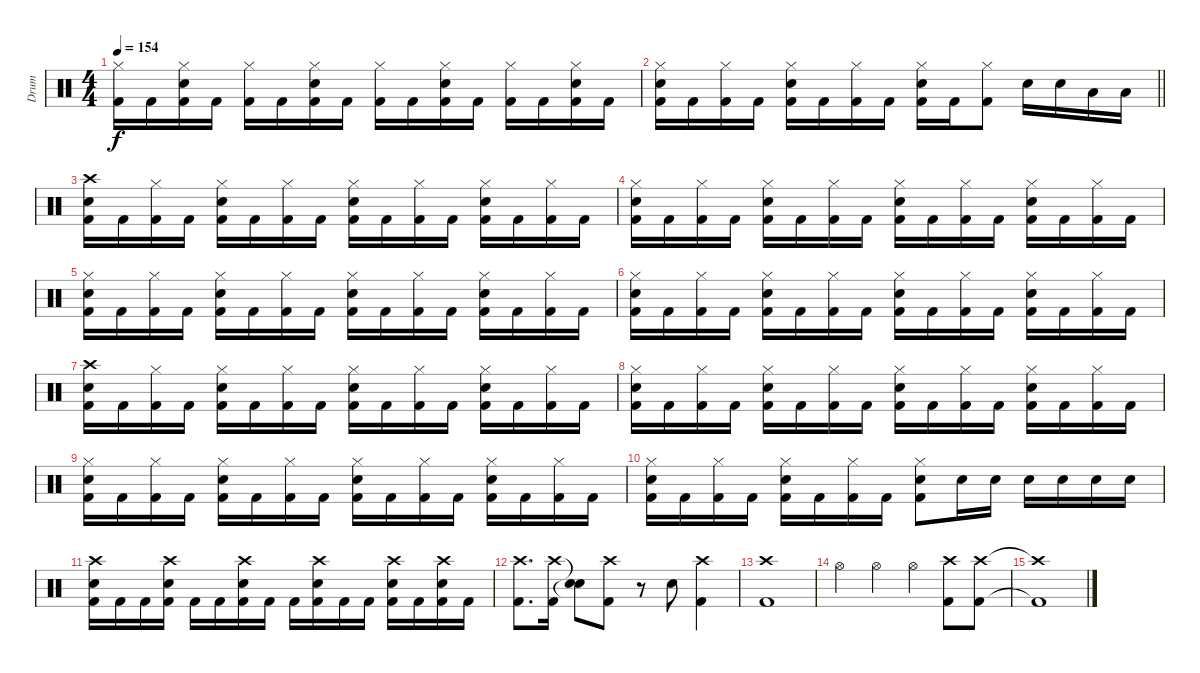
\track ("Drum" "Drum") {instrument percussion}
\staff {score}
\articulation defaults
\ts (4 4)
\tempo 154
\clef neutral
\ks c
("Hi-Hat (closed)" "Kick (hit) 2").16{dy f} "Kick (hit) 2".16 ("Hi-Hat (closed)" "Snare (hit) 2" "Kick (hit) 2").16 "Kick (hit) 2".16 ("Hi-Hat (closed)" "Kick (hit) 2").16 "Kick (hit) 2".16 ("Hi-Hat (closed)" "Snare (hit) 2" "Kick (hit) 2").16 "Kick (hit) 2".16 ("Hi-Hat (closed)" "Kick (hit) 2").16 "Kick (hit) 2".16 ("Hi-Hat (closed)" "Snare (hit) 2" "Kick (hit) 2").16 "Kick (hit) 2".16 ("Hi-Hat (closed)" "Kick (hit) 2").16 "Kick (hit) 2".16 ("Hi-Hat (closed)" "Snare (hit) 2" "Kick (hit) 2").16 "Kick (hit) 2".16 |
\barLineRight lightlight
("Hi-Hat (closed)" "Snare (hit) 2" "Kick (hit) 2").16 "Kick (hit) 2".16 ("Hi-Hat (closed)" "Kick (hit) 2").16 "Kick (hit) 2".16 ("Hi-Hat (closed)" "Snare (hit) 2" "Kick (hit) 2").16 "Kick (hit) 2".16 ("Hi-Hat (closed)" "Kick (hit) 2").16 "Kick (hit) 2".16 ("Hi-Hat (closed)" "Snare (hit) 2" "Kick (hit) 2").16 "Kick (hit) 2".16 ("Hi-Hat (closed)" "Kick (hit) 2").8 "Snare (hit) 2".16 "Snare (hit) 2".16 "Low Tom (hit)".16 "Low Tom (hit)".16 |
("Crash high (hit)" "Snare (hit) 2" "Kick (hit) 2").16 "Kick (hit) 2".16 ("Hi-Hat (closed)" "Kick (hit) 2").16 "Kick (hit) 2".16 ("Hi-Hat (closed)" "Snare (hit) 2" "Kick (hit) 2").16 "Kick (hit) 2".16 ("Hi-Hat (closed)" "Kick (hit) 2").16 "Kick (hit) 2".16 ("Hi-Hat (closed)" "Snare (hit) 2" "Kick (hit) 2").16 "Kick (hit) 2".16 ("Hi-Hat (closed)" "Kick (hit) 2").16 "Kick (hit) 2".16 ("Hi-Hat (closed)" "Snare (hit) 2" "Kick (hit) 2").16 "Kick (hit) 2".16 ("Hi-Hat (closed)" "Kick (hit) 2").16 "Kick (hit) 2".16 |
("Hi-Hat (closed)" "Snare (hit) 2" "Kick (hit) 2").16 "Kick (hit) 2".16 ("Hi-Hat (closed)" "Kick (hit) 2").16 "Kick (hit) 2".16 ("Hi-Hat (closed)" "Snare (hit) 2" "Kick (hit) 2").16 "Kick (hit) 2".16 ("Hi-Hat (closed)" "Kick (hit) 2").16 "Kick (hit) 2".16 ("Hi-Hat (closed)" "Snare (hit) 2" "Kick (hit) 2").16 "Kick (hit) 2".16 ("Hi-Hat (closed)" "Kick (hit) 2").16 "Kick (hit) 2".16 ("Hi-Hat (closed)" "Snare (hit) 2" "Kick (hit) 2").16 "Kick (hit) 2".16 ("Hi-Hat (closed)" "Kick (hit) 2").16 "Kick (hit) 2".16 |
("Hi-Hat (closed)" "Snare (hit) 2" "Kick (hit) 2").16 "Kick (hit) 2".16 ("Hi-Hat (closed)" "Kick (hit) 2").16 "Kick (hit) 2".16 ("Hi-Hat (closed)" "Snare (hit) 2" "Kick (hit) 2").16 "Kick (hit) 2".16 ("Hi-Hat (closed)" "Kick (hit) 2").16 "Kick (hit) 2".16 ("Hi-Hat (closed)" "Snare (hit) 2" "Kick (hit) 2").16 "Kick (hit) 2".16 ("Hi-Hat (closed)" "Kick (hit) 2").16 "Kick (hit) 2".16 ("Hi-Hat (closed)" "Snare (hit) 2" "Kick (hit) 2").16 "Kick (hit) 2".16 ("Hi-Hat (closed)" "Kick (hit) 2").16 "Kick (hit) 2".16 |
("Hi-Hat (closed)" "Snare (hit) 2" "Kick (hit) 2").16 "Kick (hit) 2".16 ("Hi-Hat (closed)" "Kick (hit) 2").16 "Kick (hit) 2".16 ("Hi-Hat (closed)" "Snare (hit) 2" "Kick (hit) 2").16 "Kick (hit) 2".16 ("Hi-Hat (closed)" "Kick (hit) 2").16 "Kick (hit) 2".16 ("Hi-Hat (closed)" "Snare (hit) 2" "Kick (hit) 2").16 "Kick (hit) 2".16 ("Hi-Hat (closed)" "Kick (hit) 2").16 "Kick (hit) 2".16 ("Hi-Hat (closed)" "Snare (hit) 2" "Kick (hit) 2").16 "Kick (hit) 2".16 ("Hi-Hat (closed)" "Kick (hit) 2").16 "Kick (hit) 2".16 |
("Crash high (hit)" "Snare (hit) 2" "Kick (hit) 2").16 "Kick (hit) 2".16 ("Hi-Hat (closed)" "Kick (hit) 2").16 "Kick (hit) 2".16 ("Hi-Hat (closed)" "Snare (hit) 2" "Kick (hit) 2").16 "Kick (hit) 2".16 ("Hi-Hat (closed)" "Kick (hit) 2").16 "Kick (hit) 2".16 ("Hi-Hat (closed)" "Snare (hit) 2" "Kick (hit) 2").16 "Kick (hit) 2".16 ("Hi-Hat (closed)" "Kick (hit) 2").16 "Kick (hit) 2".16 ("Hi-Hat (closed)" "Snare (hit) 2" "Kick (hit) 2").16 "Kick (hit) 2".16 ("Hi-Hat (closed)" "Kick (hit) 2").16 "Kick (hit) 2".16 |
("Hi-Hat (closed)" "Snare (hit) 2" "Kick (hit) 2").16 "Kick (hit) 2".16 ("Hi-Hat (closed)" "Kick (hit) 2").16 "Kick (hit) 2".16 ("Hi-Hat (closed)" "Snare (hit) 2" "Kick (hit) 2").16 "Kick (hit) 2".16 ("Hi-Hat (closed)" "Kick (hit) 2").16 "Kick (hit) 2".16 ("Hi-Hat (closed)" "Snare (hit) 2" "Kick (hit) 2").16 "Kick (hit) 2".16 ("Hi-Hat (closed)" "Kick (hit) 2").16 "Kick (hit) 2".16 ("Hi-Hat (closed)" "Snare (hit) 2" "Kick (hit) 2").16 "Kick (hit) 2".16 ("Hi-Hat (closed)" "Kick (hit) 2").16 "Kick (hit) 2".16 |
("Hi-Hat (closed)" "Snare (hit) 2" "Kick (hit) 2").16 "Kick (hit) 2".16 ("Hi-Hat (closed)" "Kick (hit) 2").16 "Kick (hit) 2".16 ("Hi-Hat (closed)" "Snare (hit) 2" "Kick (hit) 2").16 "Kick (hit) 2".16 ("Hi-Hat (closed)" "Kick (hit) 2").16 "Kick (hit) 2".16 ("Hi-Hat (closed)" "Snare (hit) 2" "Kick (hit) 2").16 "Kick (hit) 2".16 ("Hi-Hat (closed)" "Kick (hit) 2").16 "Kick (hit) 2".16 ("Hi-Hat (closed)" "Snare (hit) 2" "Kick (hit) 2").16 "Kick (hit) 2".16 ("Hi-Hat (closed)" "Kick (hit) 2").16 "Kick (hit) 2".16 |
("Hi-Hat (closed)" "Snare (hit) 2" "Kick (hit) 2").16 "Kick (hit) 2".16 ("Hi-Hat (closed)" "Kick (hit) 2").16 "Kick (hit) 2".16 ("Hi-Hat (closed)" "Snare (hit) 2" "Kick (hit) 2").16 "Kick (hit) 2".16 ("Hi-Hat (closed)" "Kick (hit) 2").16 "Kick (hit) 2".16 ("Hi-Hat (closed)" "Snare (hit) 2" "Kick (hit) 2").8 "Snare (hit) 2".16 "Snare (hit) 2".16 "Snare (hit) 2".16 "Snare (hit) 2".16 "Snare (hit) 2".16 "Snare (hit) 2".16 |
("Crash high (hit)" "Snare (hit) 2" "Kick (hit) 2").16 "Kick (hit) 2".16 "Kick (hit) 2".16 ("Crash high (hit)" "Snare (hit) 2" "Kick (hit) 2").16 "Kick (hit) 2".16 "Kick (hit) 2".16 ("Crash high (hit)" "Snare (hit) 2" "Kick (hit) 2").16 "Kick (hit) 2".16 "Kick (hit) 2".16 ("Crash high (hit)" "Snare (hit) 2" "Kick (hit) 2").16 "Kick (hit) 2".16 "Kick (hit) 2".16 ("Crash high (hit)" "Snare (hit) 2" "Kick (hit) 2").16 "Kick (hit) 2".16 ("Crash high (hit)" "Snare (hit) 2" "Kick (hit) 2").16 "Kick (hit) 2".16 |
("Crash high (hit)" "Kick (hit) 2").8{d} ("Crash high (hit)" "Kick (hit) 2").16 ("Snare (hit)"{t} "Snare (hit)"{t}).8 ("Crash high (hit)" "Kick (hit) 2").8 r.8 "Snare (hit) 2".8 ("Crash high (hit)" "Kick (hit) 2").4 |
("Crash high (hit)" "Kick (hit) 2").1 |
"Hi-Hat (open)".4 "Hi-Hat (open)".4 "Hi-Hat (open)".4 ("Crash high (hit)" "Kick (hit) 2").8 ("Crash high (hit)" "Kick (hit) 2").8 |
("Crash high (hit)"{t} "Kick (hit) 2"{t}).1
